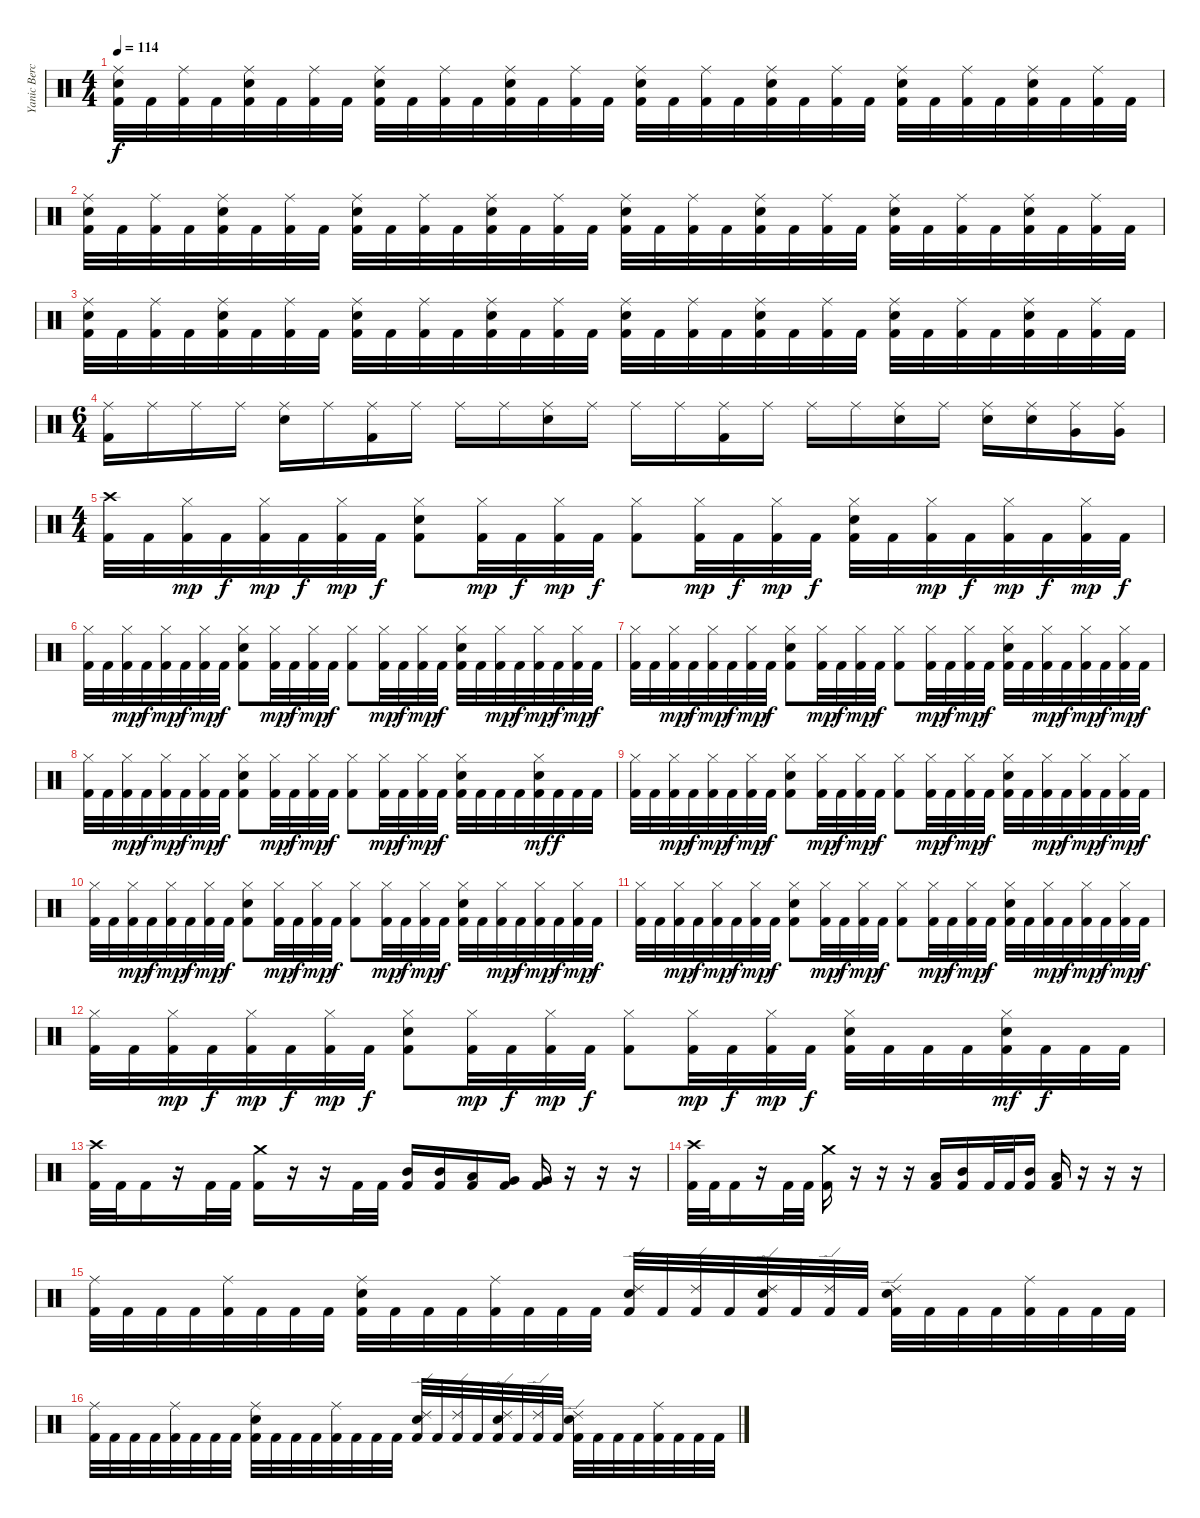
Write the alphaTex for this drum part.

\track ("Yanic Bercier" "Yanic Berc") {instrument percussion}
\staff {score}
\articulation defaults
\ts (4 4)
\tempo 114
\clef neutral
\ks c
("Ride (middle)" "Electric Snare (hit)" "Kick (hit) 2").32{dy f} "Kick (hit) 2".32 ("Ride (middle)" "Kick (hit) 2").32 "Kick (hit) 2".32 ("Ride (middle)" "Electric Snare (hit)" "Kick (hit) 2").32 "Kick (hit) 2".32 ("Ride (middle)" "Kick (hit) 2").32 "Kick (hit) 2".32 ("Ride (middle)" "Electric Snare (hit)" "Kick (hit) 2").32 "Kick (hit) 2".32 ("Ride (middle)" "Kick (hit) 2").32 "Kick (hit) 2".32 ("Ride (middle)" "Electric Snare (hit)" "Kick (hit) 2").32 "Kick (hit) 2".32 ("Ride (middle)" "Kick (hit) 2").32 "Kick (hit) 2".32 ("Ride (middle)" "Electric Snare (hit)" "Kick (hit) 2").32 "Kick (hit) 2".32 ("Ride (middle)" "Kick (hit) 2").32 "Kick (hit) 2".32 ("Ride (middle)" "Electric Snare (hit)" "Kick (hit) 2").32 "Kick (hit) 2".32 ("Ride (middle)" "Kick (hit) 2").32 "Kick (hit) 2".32 ("Ride (middle)" "Electric Snare (hit)" "Kick (hit) 2").32 "Kick (hit) 2".32 ("Ride (middle)" "Kick (hit) 2").32 "Kick (hit) 2".32 ("Ride (middle)" "Electric Snare (hit)" "Kick (hit) 2").32 "Kick (hit) 2".32 ("Ride (middle)" "Kick (hit) 2").32 "Kick (hit) 2".32 |
("Ride (middle)" "Electric Snare (hit)" "Kick (hit) 2").32 "Kick (hit) 2".32 ("Ride (middle)" "Kick (hit) 2").32 "Kick (hit) 2".32 ("Ride (middle)" "Electric Snare (hit)" "Kick (hit) 2").32 "Kick (hit) 2".32 ("Ride (middle)" "Kick (hit) 2").32 "Kick (hit) 2".32 ("Ride (middle)" "Electric Snare (hit)" "Kick (hit) 2").32 "Kick (hit) 2".32 ("Ride (middle)" "Kick (hit) 2").32 "Kick (hit) 2".32 ("Ride (middle)" "Electric Snare (hit)" "Kick (hit) 2").32 "Kick (hit) 2".32 ("Ride (middle)" "Kick (hit) 2").32 "Kick (hit) 2".32 ("Ride (middle)" "Electric Snare (hit)" "Kick (hit) 2").32 "Kick (hit) 2".32 ("Ride (middle)" "Kick (hit) 2").32 "Kick (hit) 2".32 ("Ride (middle)" "Electric Snare (hit)" "Kick (hit) 2").32 "Kick (hit) 2".32 ("Ride (middle)" "Kick (hit) 2").32 "Kick (hit) 2".32 ("Ride (middle)" "Electric Snare (hit)" "Kick (hit) 2").32 "Kick (hit) 2".32 ("Ride (middle)" "Kick (hit) 2").32 "Kick (hit) 2".32 ("Ride (middle)" "Electric Snare (hit)" "Kick (hit) 2").32 "Kick (hit) 2".32 ("Ride (middle)" "Kick (hit) 2").32 "Kick (hit) 2".32 |
("Ride (middle)" "Electric Snare (hit)" "Kick (hit) 2").32 "Kick (hit) 2".32 ("Ride (middle)" "Kick (hit) 2").32 "Kick (hit) 2".32 ("Ride (middle)" "Electric Snare (hit)" "Kick (hit) 2").32 "Kick (hit) 2".32 ("Ride (middle)" "Kick (hit) 2").32 "Kick (hit) 2".32 ("Ride (middle)" "Electric Snare (hit)" "Kick (hit) 2").32 "Kick (hit) 2".32 ("Ride (middle)" "Kick (hit) 2").32 "Kick (hit) 2".32 ("Ride (middle)" "Electric Snare (hit)" "Kick (hit) 2").32 "Kick (hit) 2".32 ("Ride (middle)" "Kick (hit) 2").32 "Kick (hit) 2".32 ("Ride (middle)" "Electric Snare (hit)" "Kick (hit) 2").32 "Kick (hit) 2".32 ("Ride (middle)" "Kick (hit) 2").32 "Kick (hit) 2".32 ("Ride (middle)" "Electric Snare (hit)" "Kick (hit) 2").32 "Kick (hit) 2".32 ("Ride (middle)" "Kick (hit) 2").32 "Kick (hit) 2".32 ("Ride (middle)" "Electric Snare (hit)" "Kick (hit) 2").32 "Kick (hit) 2".32 ("Ride (middle)" "Kick (hit) 2").32 "Kick (hit) 2".32 ("Ride (middle)" "Electric Snare (hit)" "Kick (hit) 2").32 "Kick (hit) 2".32 ("Ride (middle)" "Kick (hit) 2").32 "Kick (hit) 2".32 |
\ts (6 4)
("Ride (middle)" "Kick (hit) 2").16 "Ride (middle)".16 "Ride (middle)".16 "Ride (middle)".16 ("Ride (middle)" "Electric Snare (hit)").16 "Ride (middle)".16 ("Ride (middle)" "Kick (hit) 2").16 "Ride (middle)".16 "Ride (middle)".16 "Ride (middle)".16 ("Ride (middle)" "Electric Snare (hit)").16 "Ride (middle)".16 "Ride (middle)".16 "Ride (middle)".16 ("Ride (middle)" "Kick (hit) 2").16 "Ride (middle)".16 "Ride (middle)".16 "Ride (middle)".16 ("Ride (middle)" "Electric Snare (hit)").16 "Ride (middle)".16 ("Ride (middle)" "Electric Snare (hit)").16 ("Ride (middle)" "Electric Snare (hit)").16 ("Ride (middle)" "Very Low Tom (hit)").16 ("Ride (middle)" "Very Low Tom (hit)").16 |
\ts (4 4)
("Crash high (hit)" "Kick (hit) 2").32 "Kick (hit) 2".32 ("Hi-Hat (closed)" "Kick (hit) 2").32{dy mp} "Kick (hit) 2".32{dy f} ("Hi-Hat (closed)" "Kick (hit) 2").32{dy mp} "Kick (hit) 2".32{dy f} ("Hi-Hat (closed)" "Kick (hit) 2").32{dy mp} "Kick (hit) 2".32{dy f} ("Hi-Hat (closed)" "Electric Snare (hit)" "Kick (hit) 2").8 ("Hi-Hat (closed)" "Kick (hit) 2").32{dy mp} "Kick (hit) 2".32{dy f} ("Hi-Hat (closed)" "Kick (hit) 2").32{dy mp} "Kick (hit) 2".32{dy f} ("Hi-Hat (closed)" "Kick (hit) 2").8 ("Hi-Hat (closed)" "Kick (hit) 2").32{dy mp} "Kick (hit) 2".32{dy f} ("Hi-Hat (closed)" "Kick (hit) 2").32{dy mp} "Kick (hit) 2".32{dy f} ("Hi-Hat (closed)" "Electric Snare (hit)" "Kick (hit) 2").32 "Kick (hit) 2".32 ("Hi-Hat (closed)" "Kick (hit) 2").32{dy mp} "Kick (hit) 2".32{dy f} ("Hi-Hat (closed)" "Kick (hit) 2").32{dy mp} "Kick (hit) 2".32{dy f} ("Hi-Hat (closed)" "Kick (hit) 2").32{dy mp} "Kick (hit) 2".32{dy f} |
("Hi-Hat (closed)" "Kick (hit) 2").32 "Kick (hit) 2".32 ("Hi-Hat (closed)" "Kick (hit) 2").32{dy mp} "Kick (hit) 2".32{dy f} ("Hi-Hat (closed)" "Kick (hit) 2").32{dy mp} "Kick (hit) 2".32{dy f} ("Hi-Hat (closed)" "Kick (hit) 2").32{dy mp} "Kick (hit) 2".32{dy f} ("Hi-Hat (closed)" "Electric Snare (hit)" "Kick (hit) 2").8 ("Hi-Hat (closed)" "Kick (hit) 2").32{dy mp} "Kick (hit) 2".32{dy f} ("Hi-Hat (closed)" "Kick (hit) 2").32{dy mp} "Kick (hit) 2".32{dy f} ("Hi-Hat (closed)" "Kick (hit) 2").8 ("Hi-Hat (closed)" "Kick (hit) 2").32{dy mp} "Kick (hit) 2".32{dy f} ("Hi-Hat (closed)" "Kick (hit) 2").32{dy mp} "Kick (hit) 2".32{dy f} ("Hi-Hat (closed)" "Electric Snare (hit)" "Kick (hit) 2").32 "Kick (hit) 2".32 ("Hi-Hat (closed)" "Kick (hit) 2").32{dy mp} "Kick (hit) 2".32{dy f} ("Hi-Hat (closed)" "Kick (hit) 2").32{dy mp} "Kick (hit) 2".32{dy f} ("Hi-Hat (closed)" "Kick (hit) 2").32{dy mp} "Kick (hit) 2".32{dy f} |
("Hi-Hat (closed)" "Kick (hit) 2").32 "Kick (hit) 2".32 ("Hi-Hat (closed)" "Kick (hit) 2").32{dy mp} "Kick (hit) 2".32{dy f} ("Hi-Hat (closed)" "Kick (hit) 2").32{dy mp} "Kick (hit) 2".32{dy f} ("Hi-Hat (closed)" "Kick (hit) 2").32{dy mp} "Kick (hit) 2".32{dy f} ("Hi-Hat (closed)" "Electric Snare (hit)" "Kick (hit) 2").8 ("Hi-Hat (closed)" "Kick (hit) 2").32{dy mp} "Kick (hit) 2".32{dy f} ("Hi-Hat (closed)" "Kick (hit) 2").32{dy mp} "Kick (hit) 2".32{dy f} ("Hi-Hat (closed)" "Kick (hit) 2").8 ("Hi-Hat (closed)" "Kick (hit) 2").32{dy mp} "Kick (hit) 2".32{dy f} ("Hi-Hat (closed)" "Kick (hit) 2").32{dy mp} "Kick (hit) 2".32{dy f} ("Hi-Hat (closed)" "Electric Snare (hit)" "Kick (hit) 2").32 "Kick (hit) 2".32 ("Hi-Hat (closed)" "Kick (hit) 2").32{dy mp} "Kick (hit) 2".32{dy f} ("Hi-Hat (closed)" "Kick (hit) 2").32{dy mp} "Kick (hit) 2".32{dy f} ("Hi-Hat (closed)" "Kick (hit) 2").32{dy mp} "Kick (hit) 2".32{dy f} |
("Hi-Hat (closed)" "Kick (hit) 2").32 "Kick (hit) 2".32 ("Hi-Hat (closed)" "Kick (hit) 2").32{dy mp} "Kick (hit) 2".32{dy f} ("Hi-Hat (closed)" "Kick (hit) 2").32{dy mp} "Kick (hit) 2".32{dy f} ("Hi-Hat (closed)" "Kick (hit) 2").32{dy mp} "Kick (hit) 2".32{dy f} ("Hi-Hat (closed)" "Electric Snare (hit)" "Kick (hit) 2").8 ("Hi-Hat (closed)" "Kick (hit) 2").32{dy mp} "Kick (hit) 2".32{dy f} ("Hi-Hat (closed)" "Kick (hit) 2").32{dy mp} "Kick (hit) 2".32{dy f} ("Hi-Hat (closed)" "Kick (hit) 2").8 ("Hi-Hat (closed)" "Kick (hit) 2").32{dy mp} "Kick (hit) 2".32{dy f} ("Hi-Hat (closed)" "Kick (hit) 2").32{dy mp} "Kick (hit) 2".32{dy f} ("Hi-Hat (closed)" "Electric Snare (hit)" "Kick (hit) 2").32 "Kick (hit) 2".32 "Kick (hit) 2".32 "Kick (hit) 2".32 ("Hi-Hat (closed)" "Electric Snare (hit)" "Kick (hit) 2").32{dy mf} "Kick (hit) 2".32{dy f} "Kick (hit) 2".32 "Kick (hit) 2".32 |
("Hi-Hat (closed)" "Kick (hit) 2").32 "Kick (hit) 2".32 ("Hi-Hat (closed)" "Kick (hit) 2").32{dy mp} "Kick (hit) 2".32{dy f} ("Hi-Hat (closed)" "Kick (hit) 2").32{dy mp} "Kick (hit) 2".32{dy f} ("Hi-Hat (closed)" "Kick (hit) 2").32{dy mp} "Kick (hit) 2".32{dy f} ("Hi-Hat (closed)" "Electric Snare (hit)" "Kick (hit) 2").8 ("Hi-Hat (closed)" "Kick (hit) 2").32{dy mp} "Kick (hit) 2".32{dy f} ("Hi-Hat (closed)" "Kick (hit) 2").32{dy mp} "Kick (hit) 2".32{dy f} ("Hi-Hat (closed)" "Kick (hit) 2").8 ("Hi-Hat (closed)" "Kick (hit) 2").32{dy mp} "Kick (hit) 2".32{dy f} ("Hi-Hat (closed)" "Kick (hit) 2").32{dy mp} "Kick (hit) 2".32{dy f} ("Hi-Hat (closed)" "Electric Snare (hit)" "Kick (hit) 2").32 "Kick (hit) 2".32 ("Hi-Hat (closed)" "Kick (hit) 2").32{dy mp} "Kick (hit) 2".32{dy f} ("Hi-Hat (closed)" "Kick (hit) 2").32{dy mp} "Kick (hit) 2".32{dy f} ("Hi-Hat (closed)" "Kick (hit) 2").32{dy mp} "Kick (hit) 2".32{dy f} |
("Hi-Hat (closed)" "Kick (hit) 2").32 "Kick (hit) 2".32 ("Hi-Hat (closed)" "Kick (hit) 2").32{dy mp} "Kick (hit) 2".32{dy f} ("Hi-Hat (closed)" "Kick (hit) 2").32{dy mp} "Kick (hit) 2".32{dy f} ("Hi-Hat (closed)" "Kick (hit) 2").32{dy mp} "Kick (hit) 2".32{dy f} ("Hi-Hat (closed)" "Electric Snare (hit)" "Kick (hit) 2").8 ("Hi-Hat (closed)" "Kick (hit) 2").32{dy mp} "Kick (hit) 2".32{dy f} ("Hi-Hat (closed)" "Kick (hit) 2").32{dy mp} "Kick (hit) 2".32{dy f} ("Hi-Hat (closed)" "Kick (hit) 2").8 ("Hi-Hat (closed)" "Kick (hit) 2").32{dy mp} "Kick (hit) 2".32{dy f} ("Hi-Hat (closed)" "Kick (hit) 2").32{dy mp} "Kick (hit) 2".32{dy f} ("Hi-Hat (closed)" "Electric Snare (hit)" "Kick (hit) 2").32 "Kick (hit) 2".32 ("Hi-Hat (closed)" "Kick (hit) 2").32{dy mp} "Kick (hit) 2".32{dy f} ("Hi-Hat (closed)" "Kick (hit) 2").32{dy mp} "Kick (hit) 2".32{dy f} ("Hi-Hat (closed)" "Kick (hit) 2").32{dy mp} "Kick (hit) 2".32{dy f} |
("Hi-Hat (closed)" "Kick (hit) 2").32 "Kick (hit) 2".32 ("Hi-Hat (closed)" "Kick (hit) 2").32{dy mp} "Kick (hit) 2".32{dy f} ("Hi-Hat (closed)" "Kick (hit) 2").32{dy mp} "Kick (hit) 2".32{dy f} ("Hi-Hat (closed)" "Kick (hit) 2").32{dy mp} "Kick (hit) 2".32{dy f} ("Hi-Hat (closed)" "Electric Snare (hit)" "Kick (hit) 2").8 ("Hi-Hat (closed)" "Kick (hit) 2").32{dy mp} "Kick (hit) 2".32{dy f} ("Hi-Hat (closed)" "Kick (hit) 2").32{dy mp} "Kick (hit) 2".32{dy f} ("Hi-Hat (closed)" "Kick (hit) 2").8 ("Hi-Hat (closed)" "Kick (hit) 2").32{dy mp} "Kick (hit) 2".32{dy f} ("Hi-Hat (closed)" "Kick (hit) 2").32{dy mp} "Kick (hit) 2".32{dy f} ("Hi-Hat (closed)" "Electric Snare (hit)" "Kick (hit) 2").32 "Kick (hit) 2".32 ("Hi-Hat (closed)" "Kick (hit) 2").32{dy mp} "Kick (hit) 2".32{dy f} ("Hi-Hat (closed)" "Kick (hit) 2").32{dy mp} "Kick (hit) 2".32{dy f} ("Hi-Hat (closed)" "Kick (hit) 2").32{dy mp} "Kick (hit) 2".32{dy f} |
("Hi-Hat (closed)" "Kick (hit) 2").32 "Kick (hit) 2".32 ("Hi-Hat (closed)" "Kick (hit) 2").32{dy mp} "Kick (hit) 2".32{dy f} ("Hi-Hat (closed)" "Kick (hit) 2").32{dy mp} "Kick (hit) 2".32{dy f} ("Hi-Hat (closed)" "Kick (hit) 2").32{dy mp} "Kick (hit) 2".32{dy f} ("Hi-Hat (closed)" "Electric Snare (hit)" "Kick (hit) 2").8 ("Hi-Hat (closed)" "Kick (hit) 2").32{dy mp} "Kick (hit) 2".32{dy f} ("Hi-Hat (closed)" "Kick (hit) 2").32{dy mp} "Kick (hit) 2".32{dy f} ("Hi-Hat (closed)" "Kick (hit) 2").8 ("Hi-Hat (closed)" "Kick (hit) 2").32{dy mp} "Kick (hit) 2".32{dy f} ("Hi-Hat (closed)" "Kick (hit) 2").32{dy mp} "Kick (hit) 2".32{dy f} ("Hi-Hat (closed)" "Electric Snare (hit)" "Kick (hit) 2").32 "Kick (hit) 2".32 "Kick (hit) 2".32 "Kick (hit) 2".32 ("Hi-Hat (closed)" "Electric Snare (hit)" "Kick (hit) 2").32{dy mf} "Kick (hit) 2".32{dy f} "Kick (hit) 2".32 "Kick (hit) 2".32 |
("Crash high (hit)" "Kick (hit) 2").32 "Kick (hit) 2".32 "Kick (hit) 2".16 r.16 "Kick (hit) 2".32 "Kick (hit) 2".32 ("Crash medium (hit)" "Kick (hit) 2").16 r.16 r.16 "Kick (hit) 2".32 "Kick (hit) 2".32 ("Mid Tom (hit)" "Kick (hit) 2").16 ("Mid Tom (hit)" "Kick (hit) 2").16 ("Low Tom (hit)" "Kick (hit) 2").16 ("Very Low Tom (hit)" "Kick (hit) 2").16 ("Very Low Tom (hit)" "Kick (hit) 2").16 r.16 r.16 r.16 |
("Crash high (hit)" "Kick (hit) 2").32 "Kick (hit) 2".32 "Kick (hit) 2".16 r.16 "Kick (hit) 2".32 "Kick (hit) 2".32 ("Crash medium (hit)" "Kick (hit) 2").16 r.16 r.16 r.16 ("Low Tom (hit)" "Kick (hit) 2").16 ("Mid Tom (hit)" "Kick (hit) 2").16 "Kick (hit) 2".32 "Kick (hit) 2".32 ("Mid Tom (hit)" "Kick (hit) 2").16 ("Low Tom (hit)" "Kick (hit) 2").16 r.16 r.16 r.16 |
("Ride (middle)" "Kick (hit) 2").32 "Kick (hit) 2".32 "Kick (hit) 2".32 "Kick (hit) 2".32 ("Ride (middle)" "Kick (hit) 2").32 "Kick (hit) 2".32 "Kick (hit) 2".32 "Kick (hit) 2".32 ("Ride (middle)" "Electric Snare (hit)" "Kick (hit) 2").32 "Kick (hit) 2".32 "Kick (hit) 2".32 "Kick (hit) 2".32 ("Ride (middle)" "Kick (hit) 2").32 "Kick (hit) 2".32 "Kick (hit) 2".32 "Kick (hit) 2".32 ("Ride (edge) 2" "Electric Snare (hit)" "Kick (hit) 2").32 "Kick (hit) 2".32 ("Ride (edge) 2" "Kick (hit) 2").32 "Kick (hit) 2".32 ("Ride (edge) 2" "Electric Snare (hit)" "Kick (hit) 2").32 "Kick (hit) 2".32 ("Ride (edge) 2" "Kick (hit) 2").32 "Kick (hit) 2".32 ("Ride (edge) 2" "Electric Snare (hit)" "Kick (hit) 2").32 "Kick (hit) 2".32 "Kick (hit) 2".32 "Kick (hit) 2".32 ("Ride (middle)" "Kick (hit) 2").32 "Kick (hit) 2".32 "Kick (hit) 2".32 "Kick (hit) 2".32 |
("Ride (middle)" "Kick (hit) 2").32 "Kick (hit) 2".32 "Kick (hit) 2".32 "Kick (hit) 2".32 ("Ride (middle)" "Kick (hit) 2").32 "Kick (hit) 2".32 "Kick (hit) 2".32 "Kick (hit) 2".32 ("Ride (middle)" "Electric Snare (hit)" "Kick (hit) 2").32 "Kick (hit) 2".32 "Kick (hit) 2".32 "Kick (hit) 2".32 ("Ride (middle)" "Kick (hit) 2").32 "Kick (hit) 2".32 "Kick (hit) 2".32 "Kick (hit) 2".32 ("Ride (edge) 2" "Electric Snare (hit)" "Kick (hit) 2").32 "Kick (hit) 2".32 ("Ride (edge) 2" "Kick (hit) 2").32 "Kick (hit) 2".32 ("Ride (edge) 2" "Electric Snare (hit)" "Kick (hit) 2").32 "Kick (hit) 2".32 ("Ride (edge) 2" "Kick (hit) 2").32 "Kick (hit) 2".32 ("Ride (edge) 2" "Electric Snare (hit)" "Kick (hit) 2").32 "Kick (hit) 2".32 "Kick (hit) 2".32 "Kick (hit) 2".32 ("Ride (middle)" "Kick (hit) 2").32 "Kick (hit) 2".32 "Kick (hit) 2".32 "Kick (hit) 2".32
